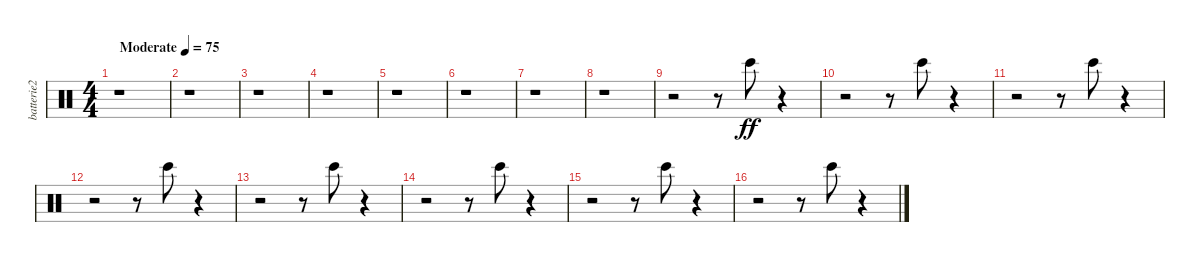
\track ("batterie2" "batterie2") {instrument percussion}
\staff {score}
\articulation defaults
\ts (4 4)
\tempo (75 "Moderate")
\clef neutral
\ks c
r.1{dy ff} |
r.1 |
r.1 |
r.1 |
r.1 |
r.1 |
r.1 |
r.1 |
r.2 r.8 "Bongo High (hit)".8 r.4 |
r.2 r.8 "Bongo High (hit)".8 r.4 |
r.2 r.8 "Bongo High (hit)".8 r.4 |
r.2 r.8 "Bongo High (hit)".8 r.4 |
r.2 r.8 "Bongo High (hit)".8 r.4 |
r.2 r.8 "Bongo High (hit)".8 r.4 |
r.2 r.8 "Bongo High (hit)".8 r.4 |
r.2 r.8 "Bongo High (hit)".8 r.4
